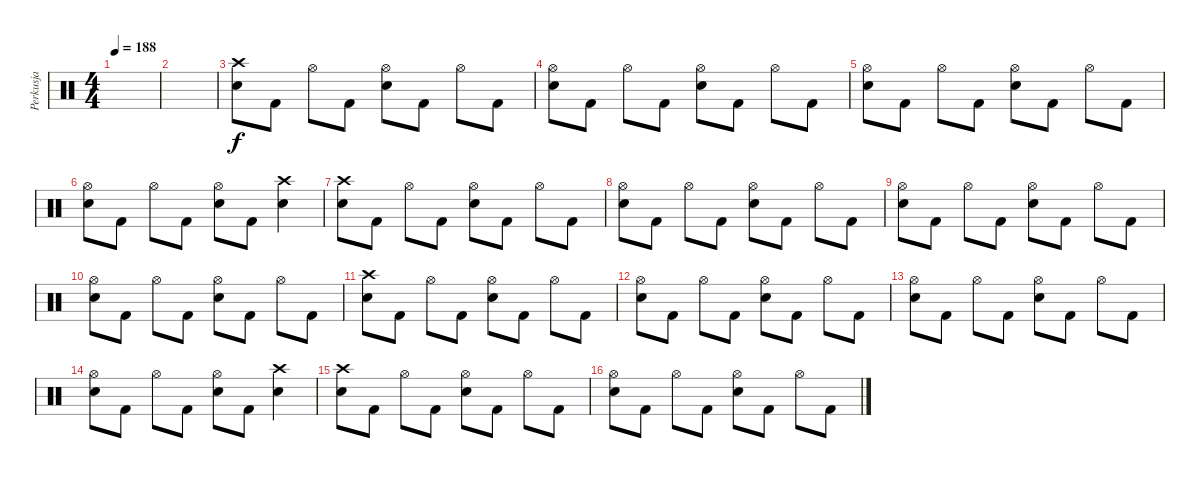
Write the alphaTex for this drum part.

\track ("Perkusja" "Perkusja") {instrument percussion}
\staff {score}
\articulation defaults
\ts (4 4)
\tempo 188
\clef neutral
\ks c
|
|
("Crash high (hit)" "Electric Snare (hit)").8 "Kick (hit) 2".8 "Hi-Hat (open)".8 "Kick (hit) 2".8 ("Hi-Hat (open)" "Electric Snare (hit)").8 "Kick (hit) 2".8 "Hi-Hat (open)".8 "Kick (hit) 2".8 |
("Hi-Hat (open)" "Electric Snare (hit)").8 "Kick (hit) 2".8 "Hi-Hat (open)".8 "Kick (hit) 2".8 ("Hi-Hat (open)" "Electric Snare (hit)").8 "Kick (hit) 2".8 "Hi-Hat (open)".8 "Kick (hit) 2".8 |
("Hi-Hat (open)" "Electric Snare (hit)").8 "Kick (hit) 2".8 "Hi-Hat (open)".8 "Kick (hit) 2".8 ("Hi-Hat (open)" "Electric Snare (hit)").8 "Kick (hit) 2".8 "Hi-Hat (open)".8 "Kick (hit) 2".8 |
("Hi-Hat (open)" "Electric Snare (hit)").8 "Kick (hit) 2".8 "Hi-Hat (open)".8 "Kick (hit) 2".8 ("Hi-Hat (open)" "Electric Snare (hit)").8 "Kick (hit) 2".8 ("Crash high (hit)" "Electric Snare (hit)").4 |
("Crash high (hit)" "Electric Snare (hit)").8 "Kick (hit) 2".8 "Hi-Hat (open)".8 "Kick (hit) 2".8 ("Hi-Hat (open)" "Electric Snare (hit)").8 "Kick (hit) 2".8 "Hi-Hat (open)".8 "Kick (hit) 2".8 |
("Hi-Hat (open)" "Electric Snare (hit)").8 "Kick (hit) 2".8 "Hi-Hat (open)".8 "Kick (hit) 2".8 ("Hi-Hat (open)" "Electric Snare (hit)").8 "Kick (hit) 2".8 "Hi-Hat (open)".8 "Kick (hit) 2".8 |
("Hi-Hat (open)" "Electric Snare (hit)").8 "Kick (hit) 2".8 "Hi-Hat (open)".8 "Kick (hit) 2".8 ("Hi-Hat (open)" "Electric Snare (hit)").8 "Kick (hit) 2".8 "Hi-Hat (open)".8 "Kick (hit) 2".8 |
("Hi-Hat (open)" "Electric Snare (hit)").8 "Kick (hit) 2".8 "Hi-Hat (open)".8 "Kick (hit) 2".8 ("Hi-Hat (open)" "Electric Snare (hit)").8 "Kick (hit) 2".8 "Hi-Hat (open)".8 "Kick (hit) 2".8 |
("Crash high (hit)" "Electric Snare (hit)").8 "Kick (hit) 2".8 "Hi-Hat (open)".8 "Kick (hit) 2".8 ("Hi-Hat (open)" "Electric Snare (hit)").8 "Kick (hit) 2".8 "Hi-Hat (open)".8 "Kick (hit) 2".8 |
("Hi-Hat (open)" "Electric Snare (hit)").8 "Kick (hit) 2".8 "Hi-Hat (open)".8 "Kick (hit) 2".8 ("Hi-Hat (open)" "Electric Snare (hit)").8 "Kick (hit) 2".8 "Hi-Hat (open)".8 "Kick (hit) 2".8 |
("Hi-Hat (open)" "Electric Snare (hit)").8 "Kick (hit) 2".8 "Hi-Hat (open)".8 "Kick (hit) 2".8 ("Hi-Hat (open)" "Electric Snare (hit)").8 "Kick (hit) 2".8 "Hi-Hat (open)".8 "Kick (hit) 2".8 |
("Hi-Hat (open)" "Electric Snare (hit)").8 "Kick (hit) 2".8 "Hi-Hat (open)".8 "Kick (hit) 2".8 ("Hi-Hat (open)" "Electric Snare (hit)").8 "Kick (hit) 2".8 ("Crash high (hit)" "Electric Snare (hit)").4 |
("Crash high (hit)" "Electric Snare (hit)").8 "Kick (hit) 2".8 "Hi-Hat (open)".8 "Kick (hit) 2".8 ("Hi-Hat (open)" "Electric Snare (hit)").8 "Kick (hit) 2".8 "Hi-Hat (open)".8 "Kick (hit) 2".8 |
("Hi-Hat (open)" "Electric Snare (hit)").8 "Kick (hit) 2".8 "Hi-Hat (open)".8 "Kick (hit) 2".8 ("Hi-Hat (open)" "Electric Snare (hit)").8 "Kick (hit) 2".8 "Hi-Hat (open)".8 "Kick (hit) 2".8
